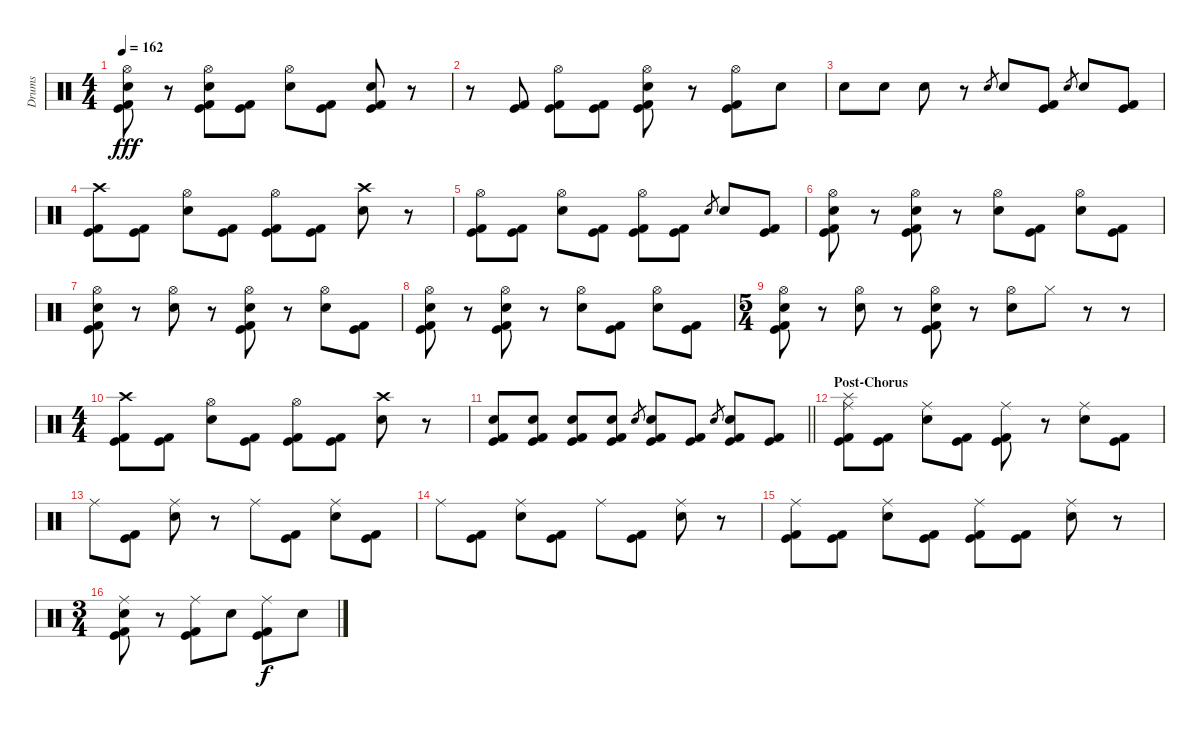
\track ("Drums" "Drums") {instrument percussion}
\staff {score}
\articulation defaults
\ts (4 4)
\tempo 162
\clef neutral
\ks c
("Hi-Hat (open)" "Electric Snare (hit)" "Kick (hit)" "Kick (hit) 2").8{dy fff} r.8 ("Hi-Hat (open)" "Electric Snare (hit)" "Kick (hit)" "Kick (hit) 2").8 ("Kick (hit)" "Kick (hit) 2").8 ("Hi-Hat (open)" "Electric Snare (hit)").8 ("Kick (hit)" "Kick (hit) 2").8 ("Electric Snare (hit)" "Kick (hit)" "Kick (hit) 2").8 r.8 |
r.8 ("Kick (hit)" "Kick (hit) 2").8 ("Hi-Hat (open)" "Kick (hit)" "Kick (hit) 2").8 ("Kick (hit)" "Kick (hit) 2").8 ("Hi-Hat (open)" "Electric Snare (hit)" "Kick (hit)" "Kick (hit) 2").8 r.8 ("Hi-Hat (open)" "Kick (hit)" "Kick (hit) 2").8 "Electric Snare (hit)".8 |
"Electric Snare (hit)".8 "Electric Snare (hit)".8 "Electric Snare (hit)".8 r.8 "Electric Snare (hit)".8{gr} "Electric Snare (hit)".8 ("Kick (hit)" "Kick (hit) 2").8 "Electric Snare (hit)".8{gr} "Electric Snare (hit)".8 ("Kick (hit)" "Kick (hit) 2").8 |
("Crash high (hit)" "Kick (hit)" "Kick (hit) 2").8 ("Kick (hit)" "Kick (hit) 2").8 ("Hi-Hat (open)" "Electric Snare (hit)").8 ("Kick (hit)" "Kick (hit) 2").8 ("Hi-Hat (open)" "Kick (hit)" "Kick (hit) 2").8 ("Kick (hit)" "Kick (hit) 2").8 ("Crash high (hit)" "Electric Snare (hit)").8 r.8 |
("Hi-Hat (open)" "Kick (hit)" "Kick (hit) 2").8 ("Kick (hit)" "Kick (hit) 2").8 ("Hi-Hat (open)" "Electric Snare (hit)").8 ("Kick (hit)" "Kick (hit) 2").8 ("Hi-Hat (open)" "Kick (hit)" "Kick (hit) 2").8 ("Kick (hit)" "Kick (hit) 2").8 "Electric Snare (hit)".8{gr} "Electric Snare (hit)".8 ("Kick (hit)" "Kick (hit) 2").8 |
("Hi-Hat (open)" "Electric Snare (hit)" "Kick (hit)" "Kick (hit) 2").8 r.8 ("Hi-Hat (open)" "Electric Snare (hit)" "Kick (hit)" "Kick (hit) 2").8 r.8 ("Hi-Hat (open)" "Electric Snare (hit)").8 ("Kick (hit)" "Kick (hit) 2").8 ("Hi-Hat (open)" "Electric Snare (hit)").8 ("Kick (hit)" "Kick (hit) 2").8 |
("Hi-Hat (open)" "Electric Snare (hit)" "Kick (hit)" "Kick (hit) 2").8 r.8 ("Hi-Hat (open)" "Electric Snare (hit)").8 r.8 ("Hi-Hat (open)" "Electric Snare (hit)" "Kick (hit)" "Kick (hit) 2").8 r.8 ("Hi-Hat (open)" "Electric Snare (hit)").8 ("Kick (hit)" "Kick (hit) 2").8 |
("Hi-Hat (open)" "Electric Snare (hit)" "Kick (hit)" "Kick (hit) 2").8 r.8 ("Hi-Hat (open)" "Electric Snare (hit)" "Kick (hit)" "Kick (hit) 2").8 r.8 ("Hi-Hat (open)" "Electric Snare (hit)").8 ("Kick (hit)" "Kick (hit) 2").8 ("Hi-Hat (open)" "Electric Snare (hit)").8 ("Kick (hit)" "Kick (hit) 2").8 |
\ts (5 4)
("Hi-Hat (open)" "Electric Snare (hit)" "Kick (hit)" "Kick (hit) 2").8 r.8 ("Hi-Hat (open)" "Electric Snare (hit)").8 r.8 ("Hi-Hat (open)" "Electric Snare (hit)" "Kick (hit)" "Kick (hit) 2").8 r.8 ("Hi-Hat (open)" "Electric Snare (hit)").8 "Hi-Hat (closed)".8 r.8 r.8 |
\ts (4 4)
("Crash high (hit)" "Kick (hit)" "Kick (hit) 2").8 ("Kick (hit)" "Kick (hit) 2").8 ("Hi-Hat (open)" "Electric Snare (hit)").8 ("Kick (hit)" "Kick (hit) 2").8 ("Hi-Hat (open)" "Kick (hit)" "Kick (hit) 2").8 ("Kick (hit)" "Kick (hit) 2").8 ("Crash high (hit)" "Electric Snare (hit)").8 r.8 |
\barLineRight lightlight
("Electric Snare (hit)" "Kick (hit)" "Kick (hit) 2").8 ("Electric Snare (hit)" "Kick (hit)" "Kick (hit) 2").8 ("Electric Snare (hit)" "Kick (hit)" "Kick (hit) 2").8 ("Electric Snare (hit)" "Kick (hit)" "Kick (hit) 2").8 "Electric Snare (hit)".8{gr} ("Electric Snare (hit)" "Kick (hit)" "Kick (hit) 2").8 ("Kick (hit)" "Kick (hit) 2").8 "Electric Snare (hit)".8{gr} ("Electric Snare (hit)" "Kick (hit)" "Kick (hit) 2").8 ("Kick (hit)" "Kick (hit) 2").8 |
\section ("" "Post-Chorus")
("Splash (hit)" "Ride (middle)" "Kick (hit)" "Kick (hit) 2").8 ("Kick (hit)" "Kick (hit) 2").8 ("Ride (middle)" "Electric Snare (hit)").8 ("Kick (hit)" "Kick (hit) 2").8 ("Ride (middle)" "Kick (hit)" "Kick (hit) 2").8 r.8 ("Ride (middle)" "Electric Snare (hit)").8 ("Kick (hit)" "Kick (hit) 2").8 |
"Ride (middle)".8 ("Kick (hit)" "Kick (hit) 2").8 ("Ride (middle)" "Electric Snare (hit)").8 r.8 "Ride (middle)".8 ("Kick (hit)" "Kick (hit) 2").8 ("Ride (middle)" "Electric Snare (hit)").8 ("Kick (hit)" "Kick (hit) 2").8 |
"Ride (middle)".8 ("Kick (hit)" "Kick (hit) 2").8 ("Ride (middle)" "Electric Snare (hit)").8 ("Kick (hit)" "Kick (hit) 2").8 "Ride (middle)".8 ("Kick (hit)" "Kick (hit) 2").8 ("Ride (middle)" "Electric Snare (hit)").8 r.8 |
("Ride (middle)" "Kick (hit)" "Kick (hit) 2").8 ("Kick (hit)" "Kick (hit) 2").8 ("Ride (middle)" "Electric Snare (hit)").8 ("Kick (hit)" "Kick (hit) 2").8 ("Ride (middle)" "Kick (hit)" "Kick (hit) 2").8 ("Kick (hit)" "Kick (hit) 2").8 ("Ride (middle)" "Electric Snare (hit)").8 r.8 |
\ts (3 4)
("Ride (middle)" "Electric Snare (hit)" "Kick (hit)" "Kick (hit) 2").8 r.8 ("Ride (middle)" "Kick (hit)" "Kick (hit) 2").8 "Electric Snare (hit)".8 ("Ride (middle)" "Kick (hit)" "Kick (hit) 2").8{dy f} "Electric Snare (hit)".8
